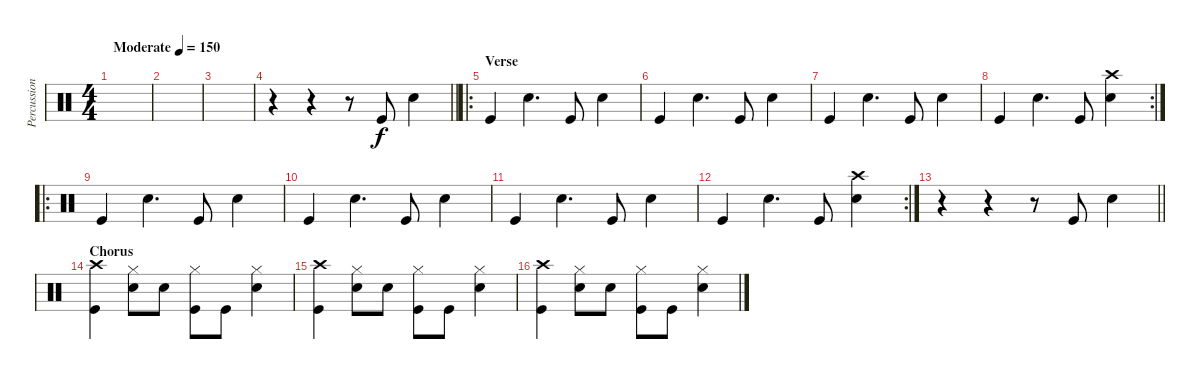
\track ("Percussion" "Percussion") {instrument percussion}
\staff {score}
\articulation defaults
\ts (4 4)
\tempo (150 "Moderate")
\clef neutral
\ks c
|
|
|
\barLineRight lightlight
r.4 r.4 r.8 "Kick (hit)".8 "Snare (hit) 2".4 |
\ro
\section ("" "Verse")
"Kick (hit)".4 "Snare (hit) 2".4{d} "Kick (hit)".8 "Snare (hit) 2".4 |
"Kick (hit)".4 "Snare (hit) 2".4{d} "Kick (hit)".8 "Snare (hit) 2".4 |
"Kick (hit)".4 "Snare (hit) 2".4{d} "Kick (hit)".8 "Snare (hit) 2".4 |
\rc 2 "Kick (hit)".4 "Snare (hit) 2".4{d} "Kick (hit)".8
("Crash high (hit)" "Snare (hit) 2").4 |
\ro "Kick (hit)".4 "Snare (hit) 2".4{d} "Kick (hit)".8 "Snare (hit) 2".4
|
"Kick (hit)".4 "Snare (hit) 2".4{d} "Kick (hit)".8 "Snare (hit) 2".4 |
"Kick (hit)".4 "Snare (hit) 2".4{d} "Kick (hit)".8 "Snare (hit) 2".4 |
\rc 2 "Kick (hit)".4 "Snare (hit) 2".4{d} "Kick (hit)".8
("Crash high (hit)" "Snare (hit) 2").4 |
\barLineRight lightlight
r.4 r.4 r.8 "Kick (hit)".8 "Snare (hit) 2".4 |
\section ("" "Chorus")
("Kick (hit)" "Crash high (hit)").4 ("Snare (hit) 2" "Hi-Hat (closed)").8 "Snare (hit) 2".8 ("Kick (hit)" "Hi-Hat (closed)").8 "Kick (hit)".8 ("Snare (hit) 2" "Hi-Hat (closed)").4 |
("Kick (hit)" "Crash high (hit)").4 ("Snare (hit) 2" "Hi-Hat (closed)").8 "Snare (hit) 2".8 ("Kick (hit)" "Hi-Hat (closed)").8 "Kick (hit)".8 ("Snare (hit) 2" "Hi-Hat (closed)").4 |
("Kick (hit)" "Crash high (hit)").4 ("Snare (hit) 2" "Hi-Hat (closed)").8 "Snare (hit) 2".8 ("Kick (hit)" "Hi-Hat (closed)").8 "Kick (hit)".8 ("Snare (hit) 2" "Hi-Hat (closed)").4
